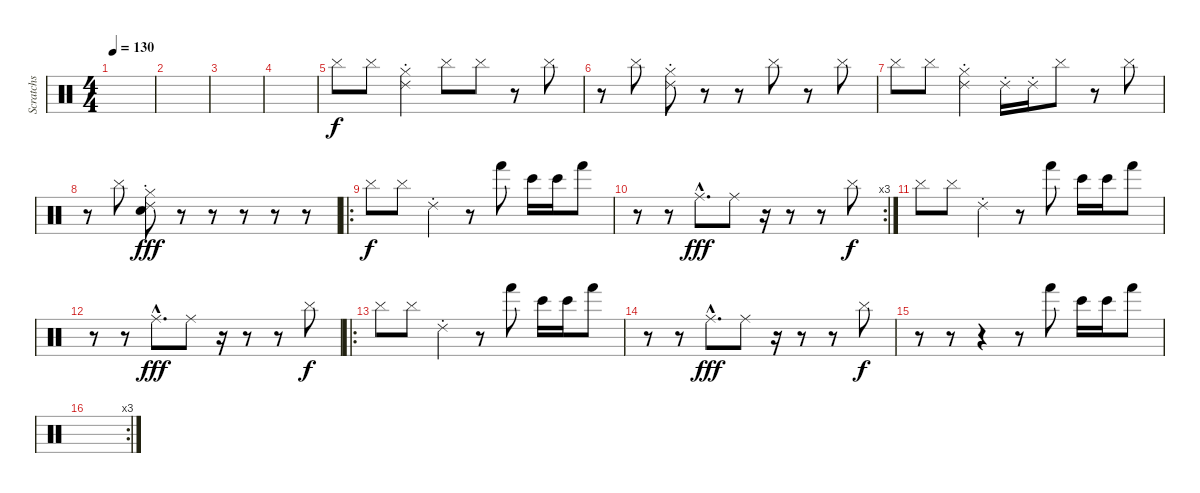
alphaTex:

\track ("Scratchs" "Scratchs") {instrument percussion}
\staff {score}
\articulation defaults
\ts (4 4)
\tempo 130
\clef neutral
\ks c
|
|
|
|
"Cymbal (hit)".8 "Cymbal (hit)".8 ("Ride (choke) 2" "Hi-Hat (closed)").4 "Cymbal (hit)".8 "Cymbal (hit)".8 r.8 "Cymbal (hit)".8 |
r.8 "Cymbal (hit)".8 ("Ride (choke) 2" "Hi-Hat (closed)").8 r.8 r.8 "Cymbal (hit)".8 r.8 "Cymbal (hit)".8 |
"Cymbal (hit)".8 "Cymbal (hit)".8 ("Ride (choke) 2" "Hi-Hat (closed)").4 "Ride (choke) 2".16 "Ride (choke) 2".16 "Cymbal (hit)".8 r.8 "Cymbal (hit)".8 |
r.8 "Cymbal (hit)".8 ("Ride (choke) 2" "Metronome (bell)" "Hi-Hat (closed)").8{dy fff} r.8 r.8 r.8 r.8 r.8 |
\ro "Cymbal (hit)".8{dy f} "Cymbal (hit)".8 "Ride (choke) 2".4
r.8 "Hand (hit)".8 "Bongo High (hit)".16 "Bongo High (hit)".16 "Hand (hit)".8 |
\rc 3
r.8 r.8 "Ride (middle)"{hac}.8{d dy fff} "Ride (middle)".8 r.16 r.8 r.8 "Cymbal (hit)".8{dy f} |
"Cymbal (hit)".8 "Cymbal (hit)".8 "Ride (choke) 2".4 r.8 "Hand (hit)".8 "Bongo High (hit)".16 "Bongo High (hit)".16 "Hand (hit)".8 |
r.8 r.8 "Ride (middle)"{hac}.8{d dy fff} "Ride (middle)".8 r.16 r.8 r.8 "Cymbal (hit)".8{dy f} |
\ro "Cymbal (hit)".8 "Cymbal (hit)".8 "Ride (choke) 2".4
r.8 "Hand (hit)".8 "Bongo High (hit)".16 "Bongo High (hit)".16 "Hand (hit)".8 |
r.8 r.8 "Ride (middle)"{hac}.8{d dy fff} "Ride (middle)".8 r.16 r.8 r.8 "Cymbal (hit)".8{dy f} |
r.8 r.8 r.4 r.8 "Hand (hit)".8 "Bongo High (hit)".16 "Bongo High (hit)".16 "Hand (hit)".8 |
\rc 3
